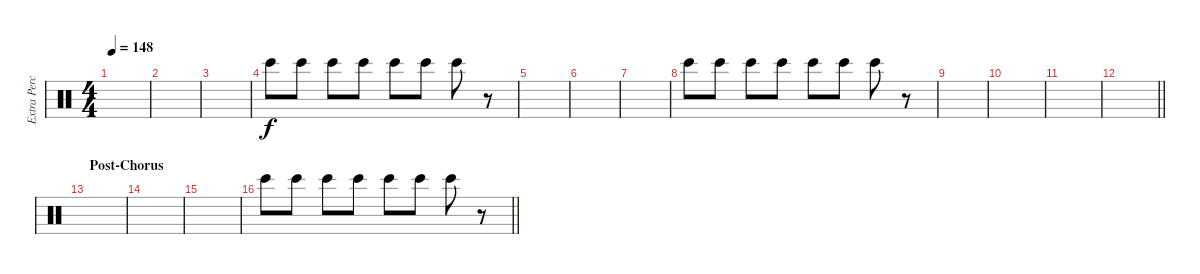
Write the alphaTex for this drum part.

\track ("Extra Percussion" "Extra Perc") {instrument percussion}
\staff {score}
\articulation defaults
\ts (4 4)
\tempo 148
\clef neutral
\ks c
|
|
|
"Bongo High (hit)".8 "Bongo High (hit)".8 "Bongo High (hit)".8 "Bongo High (hit)".8 "Bongo High (hit)".8 "Bongo High (hit)".8 "Bongo High (hit)".8 r.8 |
|
|
|
"Bongo High (hit)".8 "Bongo High (hit)".8 "Bongo High (hit)".8 "Bongo High (hit)".8 "Bongo High (hit)".8 "Bongo High (hit)".8 "Bongo High (hit)".8 r.8 |
|
|
|
\barLineRight lightlight
|
\section ("" "Post-Chorus")
|
|
|
\barLineRight lightlight "Bongo High (hit)".8 "Bongo High (hit)".8 "Bongo High (hit)".8 "Bongo High (hit)".8 "Bongo High (hit)".8 "Bongo High (hit)".8 "Bongo High (hit)".8
r.8
